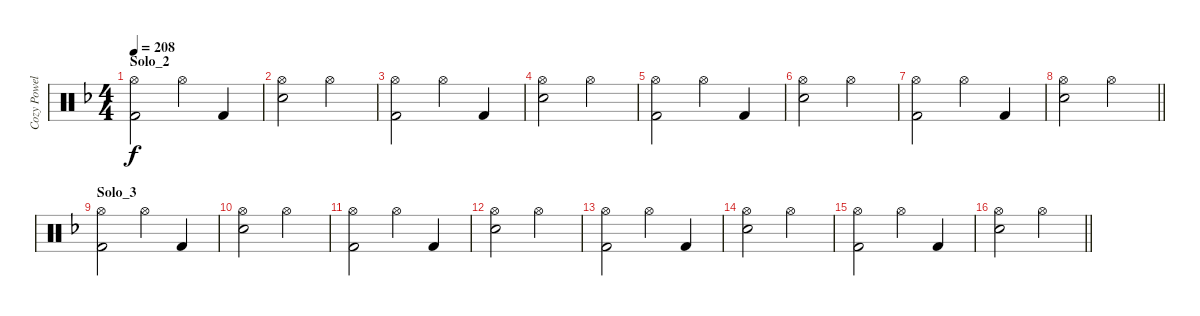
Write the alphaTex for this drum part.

\track ("Cozy Powell" "Cozy Powel") {instrument percussion}
\staff {score}
\articulation defaults
\ts (4 4)
\section ("" "Solo_2")
\tempo 208
\clef neutral
\ks f
("Hi-Hat (open)" "Kick (hit) 2").2{dy f} "Hi-Hat (open)".4 "Kick (hit) 2".4 |
("Hi-Hat (open)" "Snare (hit) 2").2 "Hi-Hat (open)".2 |
("Hi-Hat (open)" "Kick (hit) 2").2 "Hi-Hat (open)".4 "Kick (hit) 2".4 |
("Hi-Hat (open)" "Snare (hit) 2").2 "Hi-Hat (open)".2 |
("Hi-Hat (open)" "Kick (hit) 2").2 "Hi-Hat (open)".4 "Kick (hit) 2".4 |
("Hi-Hat (open)" "Snare (hit) 2").2 "Hi-Hat (open)".2 |
("Hi-Hat (open)" "Kick (hit) 2").2 "Hi-Hat (open)".4 "Kick (hit) 2".4 |
\barLineRight lightlight
("Hi-Hat (open)" "Snare (hit) 2").2 "Hi-Hat (open)".2 |
\section ("" "Solo_3")
("Hi-Hat (open)" "Kick (hit) 2").2 "Hi-Hat (open)".4 "Kick (hit) 2".4 |
("Hi-Hat (open)" "Snare (hit) 2").2 "Hi-Hat (open)".2 |
("Hi-Hat (open)" "Kick (hit) 2").2 "Hi-Hat (open)".4 "Kick (hit) 2".4 |
("Hi-Hat (open)" "Snare (hit) 2").2 "Hi-Hat (open)".2 |
("Hi-Hat (open)" "Kick (hit) 2").2 "Hi-Hat (open)".4 "Kick (hit) 2".4 |
("Hi-Hat (open)" "Snare (hit) 2").2 "Hi-Hat (open)".2 |
("Hi-Hat (open)" "Kick (hit) 2").2 "Hi-Hat (open)".4 "Kick (hit) 2".4 |
\barLineRight lightlight
("Hi-Hat (open)" "Snare (hit) 2").2 "Hi-Hat (open)".2
